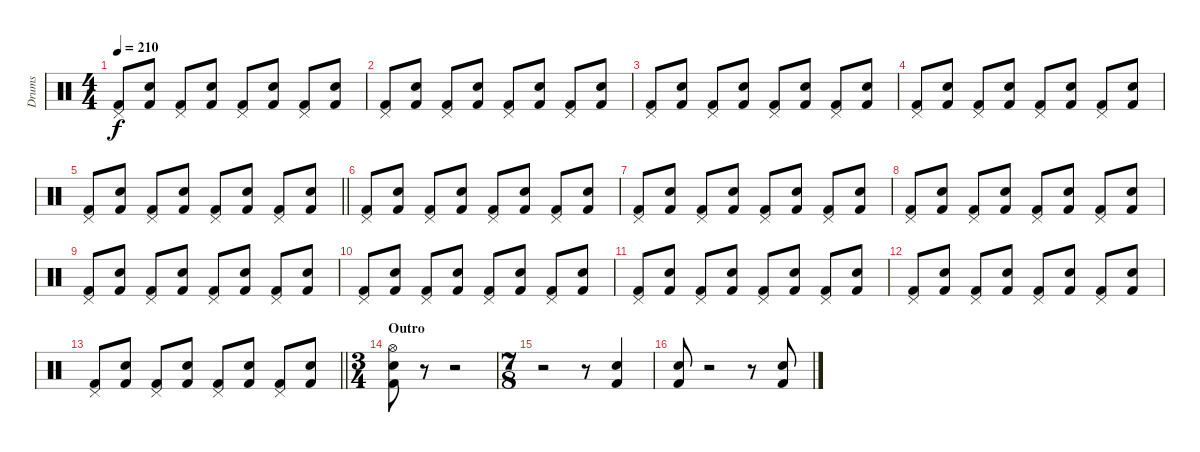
\track ("Drums" "Drums") {instrument percussion}
\staff {score}
\articulation defaults
\ts (4 4)
\tempo 210
\clef neutral
\ks c
("Pedal Hi-Hat (hit)" "Kick (hit) 2").8{dy f} ("Snare (hit) 2" "Kick (hit) 2").8 ("Pedal Hi-Hat (hit)" "Kick (hit) 2").8 ("Snare (hit) 2" "Kick (hit) 2").8 ("Pedal Hi-Hat (hit)" "Kick (hit) 2").8 ("Snare (hit) 2" "Kick (hit) 2").8 ("Pedal Hi-Hat (hit)" "Kick (hit) 2").8 ("Snare (hit) 2" "Kick (hit) 2").8 |
("Pedal Hi-Hat (hit)" "Kick (hit) 2").8 ("Snare (hit) 2" "Kick (hit) 2").8 ("Pedal Hi-Hat (hit)" "Kick (hit) 2").8 ("Snare (hit) 2" "Kick (hit) 2").8 ("Pedal Hi-Hat (hit)" "Kick (hit) 2").8 ("Snare (hit) 2" "Kick (hit) 2").8 ("Pedal Hi-Hat (hit)" "Kick (hit) 2").8 ("Snare (hit) 2" "Kick (hit) 2").8 |
("Pedal Hi-Hat (hit)" "Kick (hit) 2").8 ("Snare (hit) 2" "Kick (hit) 2").8 ("Pedal Hi-Hat (hit)" "Kick (hit) 2").8 ("Snare (hit) 2" "Kick (hit) 2").8 ("Pedal Hi-Hat (hit)" "Kick (hit) 2").8 ("Snare (hit) 2" "Kick (hit) 2").8 ("Pedal Hi-Hat (hit)" "Kick (hit) 2").8 ("Snare (hit) 2" "Kick (hit) 2").8 |
("Pedal Hi-Hat (hit)" "Kick (hit) 2").8 ("Snare (hit) 2" "Kick (hit) 2").8 ("Pedal Hi-Hat (hit)" "Kick (hit) 2").8 ("Snare (hit) 2" "Kick (hit) 2").8 ("Pedal Hi-Hat (hit)" "Kick (hit) 2").8 ("Snare (hit) 2" "Kick (hit) 2").8 ("Pedal Hi-Hat (hit)" "Kick (hit) 2").8 ("Snare (hit) 2" "Kick (hit) 2").8 |
\barLineRight lightlight
("Pedal Hi-Hat (hit)" "Kick (hit) 2").8 ("Snare (hit) 2" "Kick (hit) 2").8 ("Pedal Hi-Hat (hit)" "Kick (hit) 2").8 ("Snare (hit) 2" "Kick (hit) 2").8 ("Pedal Hi-Hat (hit)" "Kick (hit) 2").8 ("Snare (hit) 2" "Kick (hit) 2").8 ("Pedal Hi-Hat (hit)" "Kick (hit) 2").8 ("Snare (hit) 2" "Kick (hit) 2").8 |
("Pedal Hi-Hat (hit)" "Kick (hit) 2").8 ("Snare (hit) 2" "Kick (hit) 2").8 ("Pedal Hi-Hat (hit)" "Kick (hit) 2").8 ("Snare (hit) 2" "Kick (hit) 2").8 ("Pedal Hi-Hat (hit)" "Kick (hit) 2").8 ("Snare (hit) 2" "Kick (hit) 2").8 ("Pedal Hi-Hat (hit)" "Kick (hit) 2").8 ("Snare (hit) 2" "Kick (hit) 2").8 |
("Pedal Hi-Hat (hit)" "Kick (hit) 2").8 ("Snare (hit) 2" "Kick (hit) 2").8 ("Pedal Hi-Hat (hit)" "Kick (hit) 2").8 ("Snare (hit) 2" "Kick (hit) 2").8 ("Pedal Hi-Hat (hit)" "Kick (hit) 2").8 ("Snare (hit) 2" "Kick (hit) 2").8 ("Pedal Hi-Hat (hit)" "Kick (hit) 2").8 ("Snare (hit) 2" "Kick (hit) 2").8 |
("Pedal Hi-Hat (hit)" "Kick (hit) 2").8 ("Snare (hit) 2" "Kick (hit) 2").8 ("Pedal Hi-Hat (hit)" "Kick (hit) 2").8 ("Snare (hit) 2" "Kick (hit) 2").8 ("Pedal Hi-Hat (hit)" "Kick (hit) 2").8 ("Snare (hit) 2" "Kick (hit) 2").8 ("Pedal Hi-Hat (hit)" "Kick (hit) 2").8 ("Snare (hit) 2" "Kick (hit) 2").8 |
("Pedal Hi-Hat (hit)" "Kick (hit) 2").8 ("Snare (hit) 2" "Kick (hit) 2").8 ("Pedal Hi-Hat (hit)" "Kick (hit) 2").8 ("Snare (hit) 2" "Kick (hit) 2").8 ("Pedal Hi-Hat (hit)" "Kick (hit) 2").8 ("Snare (hit) 2" "Kick (hit) 2").8 ("Pedal Hi-Hat (hit)" "Kick (hit) 2").8 ("Snare (hit) 2" "Kick (hit) 2").8 |
("Pedal Hi-Hat (hit)" "Kick (hit) 2").8 ("Snare (hit) 2" "Kick (hit) 2").8 ("Pedal Hi-Hat (hit)" "Kick (hit) 2").8 ("Snare (hit) 2" "Kick (hit) 2").8 ("Pedal Hi-Hat (hit)" "Kick (hit) 2").8 ("Snare (hit) 2" "Kick (hit) 2").8 ("Pedal Hi-Hat (hit)" "Kick (hit) 2").8 ("Snare (hit) 2" "Kick (hit) 2").8 |
("Pedal Hi-Hat (hit)" "Kick (hit) 2").8 ("Snare (hit) 2" "Kick (hit) 2").8 ("Pedal Hi-Hat (hit)" "Kick (hit) 2").8 ("Snare (hit) 2" "Kick (hit) 2").8 ("Pedal Hi-Hat (hit)" "Kick (hit) 2").8 ("Snare (hit) 2" "Kick (hit) 2").8 ("Pedal Hi-Hat (hit)" "Kick (hit) 2").8 ("Snare (hit) 2" "Kick (hit) 2").8 |
("Pedal Hi-Hat (hit)" "Kick (hit) 2").8 ("Snare (hit) 2" "Kick (hit) 2").8 ("Pedal Hi-Hat (hit)" "Kick (hit) 2").8 ("Snare (hit) 2" "Kick (hit) 2").8 ("Pedal Hi-Hat (hit)" "Kick (hit) 2").8 ("Snare (hit) 2" "Kick (hit) 2").8 ("Pedal Hi-Hat (hit)" "Kick (hit) 2").8 ("Snare (hit) 2" "Kick (hit) 2").8 |
\barLineRight lightlight
("Pedal Hi-Hat (hit)" "Kick (hit) 2").8 ("Snare (hit) 2" "Kick (hit) 2").8 ("Pedal Hi-Hat (hit)" "Kick (hit) 2").8 ("Snare (hit) 2" "Kick (hit) 2").8 ("Pedal Hi-Hat (hit)" "Kick (hit) 2").8 ("Snare (hit) 2" "Kick (hit) 2").8 ("Pedal Hi-Hat (hit)" "Kick (hit) 2").8 ("Snare (hit) 2" "Kick (hit) 2").8 |
\ts (3 4)
\section ("" "Outro")
("Hi-Hat (open)" "Snare (hit) 2" "Kick (hit) 2").8 r.8 r.2 |
\ts (7 8)
r.2 r.8 ("Snare (hit) 2" "Kick (hit) 2").4 |
("Snare (hit) 2" "Kick (hit) 2").8 r.2 r.8 ("Snare (hit) 2" "Kick (hit) 2").8
